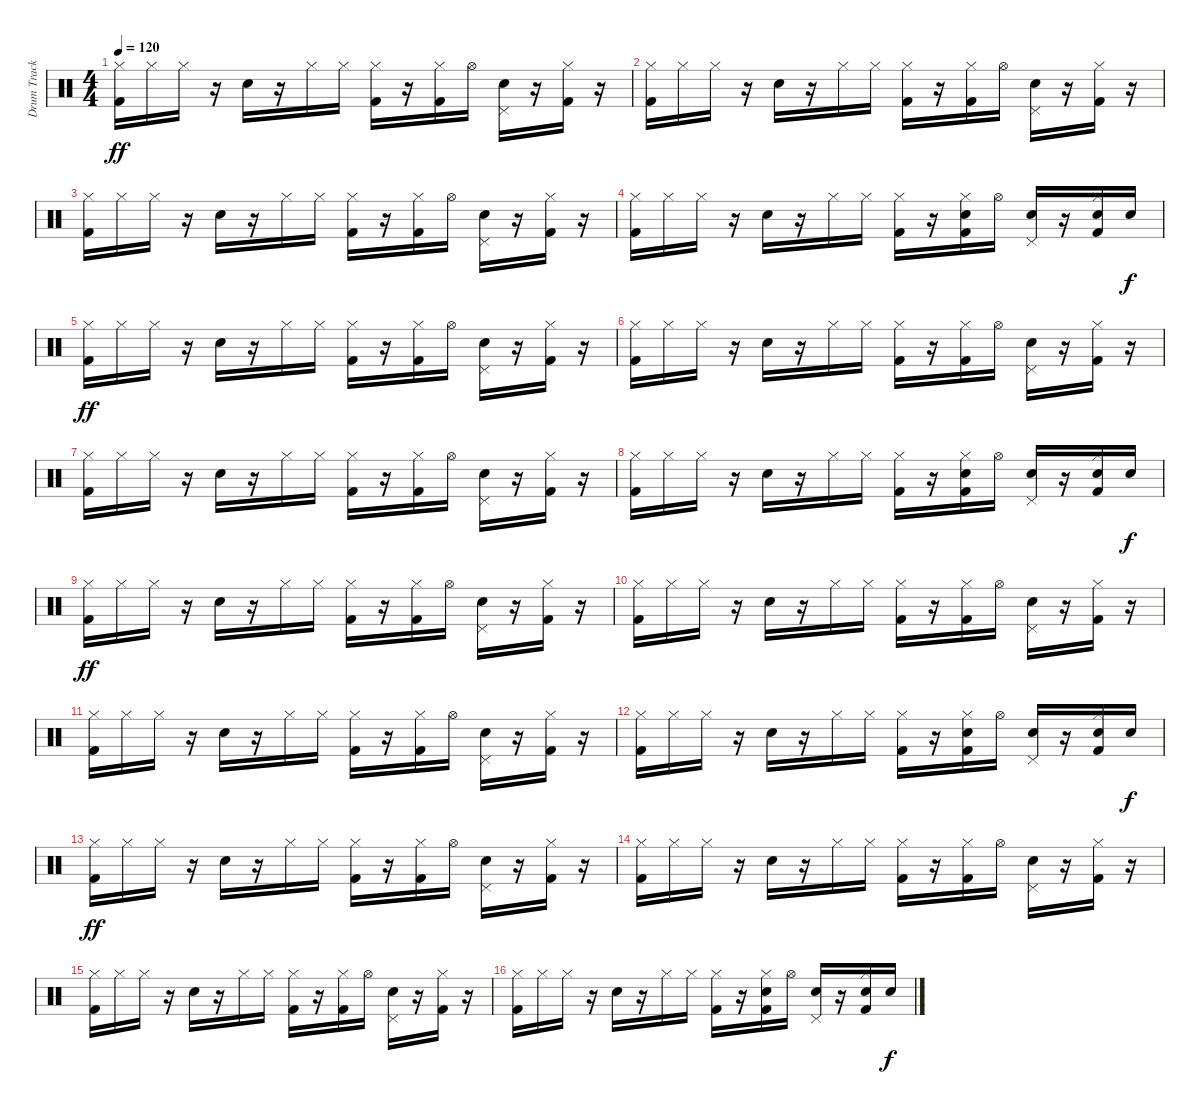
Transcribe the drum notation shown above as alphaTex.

\track ("Drum Track" "Drum Track") {instrument percussion}
\staff {score}
\articulation defaults
\ts (4 4)
\tempo 120
\clef neutral
\ks c
("Kick (hit) 2" "Hi-Hat (closed)").16{dy ff} "Hi-Hat (closed)".16 "Hi-Hat (closed)".16 r.16 "Snare (hit) 2".16 r.16 "Hi-Hat (closed)".16 "Hi-Hat (closed)".16 ("Kick (hit) 2" "Hi-Hat (closed)").16 r.16 ("Kick (hit) 2" "Hi-Hat (closed)").16 "Hi-Hat (open)".16 ("Snare (hit) 2" "Pedal Hi-Hat (hit)").16 r.16 ("Kick (hit) 2" "Hi-Hat (closed)").16 r.16 |
("Kick (hit) 2" "Hi-Hat (closed)").16 "Hi-Hat (closed)".16 "Hi-Hat (closed)".16 r.16 "Snare (hit) 2".16 r.16 "Hi-Hat (closed)".16 "Hi-Hat (closed)".16 ("Kick (hit) 2" "Hi-Hat (closed)").16 r.16 ("Kick (hit) 2" "Hi-Hat (closed)").16 "Hi-Hat (open)".16 ("Snare (hit) 2" "Pedal Hi-Hat (hit)").16 r.16 ("Kick (hit) 2" "Hi-Hat (closed)").16 r.16 |
("Kick (hit) 2" "Hi-Hat (closed)").16 "Hi-Hat (closed)".16 "Hi-Hat (closed)".16 r.16 "Snare (hit) 2".16 r.16 "Hi-Hat (closed)".16 "Hi-Hat (closed)".16 ("Kick (hit) 2" "Hi-Hat (closed)").16 r.16 ("Kick (hit) 2" "Hi-Hat (closed)").16 "Hi-Hat (open)".16 ("Snare (hit) 2" "Pedal Hi-Hat (hit)").16 r.16 ("Kick (hit) 2" "Hi-Hat (closed)").16 r.16 |
("Kick (hit) 2" "Hi-Hat (closed)").16 "Hi-Hat (closed)".16 "Hi-Hat (closed)".16 r.16 "Snare (hit) 2".16 r.16 "Hi-Hat (closed)".16 "Hi-Hat (closed)".16 ("Kick (hit) 2" "Hi-Hat (closed)").16 r.16 ("Kick (hit) 2" "Hi-Hat (closed)" "Snare (hit) 2").16 "Hi-Hat (open)".16 ("Snare (hit) 2" "Pedal Hi-Hat (hit)").16 r.16 ("Kick (hit) 2" "Hi-Hat (closed)" "Snare (hit) 2").16 "Snare (hit) 2".16{dy f} |
("Kick (hit) 2" "Hi-Hat (closed)").16{dy ff} "Hi-Hat (closed)".16 "Hi-Hat (closed)".16 r.16 "Snare (hit) 2".16 r.16 "Hi-Hat (closed)".16 "Hi-Hat (closed)".16 ("Kick (hit) 2" "Hi-Hat (closed)").16 r.16 ("Kick (hit) 2" "Hi-Hat (closed)").16 "Hi-Hat (open)".16 ("Snare (hit) 2" "Pedal Hi-Hat (hit)").16 r.16 ("Kick (hit) 2" "Hi-Hat (closed)").16 r.16 |
("Kick (hit) 2" "Hi-Hat (closed)").16 "Hi-Hat (closed)".16 "Hi-Hat (closed)".16 r.16 "Snare (hit) 2".16 r.16 "Hi-Hat (closed)".16 "Hi-Hat (closed)".16 ("Kick (hit) 2" "Hi-Hat (closed)").16 r.16 ("Kick (hit) 2" "Hi-Hat (closed)").16 "Hi-Hat (open)".16 ("Snare (hit) 2" "Pedal Hi-Hat (hit)").16 r.16 ("Kick (hit) 2" "Hi-Hat (closed)").16 r.16 |
("Kick (hit) 2" "Hi-Hat (closed)").16 "Hi-Hat (closed)".16 "Hi-Hat (closed)".16 r.16 "Snare (hit) 2".16 r.16 "Hi-Hat (closed)".16 "Hi-Hat (closed)".16 ("Kick (hit) 2" "Hi-Hat (closed)").16 r.16 ("Kick (hit) 2" "Hi-Hat (closed)").16 "Hi-Hat (open)".16 ("Snare (hit) 2" "Pedal Hi-Hat (hit)").16 r.16 ("Kick (hit) 2" "Hi-Hat (closed)").16 r.16 |
("Kick (hit) 2" "Hi-Hat (closed)").16 "Hi-Hat (closed)".16 "Hi-Hat (closed)".16 r.16 "Snare (hit) 2".16 r.16 "Hi-Hat (closed)".16 "Hi-Hat (closed)".16 ("Kick (hit) 2" "Hi-Hat (closed)").16 r.16 ("Kick (hit) 2" "Hi-Hat (closed)" "Snare (hit) 2").16 "Hi-Hat (open)".16 ("Snare (hit) 2" "Pedal Hi-Hat (hit)").16 r.16 ("Kick (hit) 2" "Hi-Hat (closed)" "Snare (hit) 2").16 "Snare (hit) 2".16{dy f} |
("Kick (hit) 2" "Hi-Hat (closed)").16{dy ff} "Hi-Hat (closed)".16 "Hi-Hat (closed)".16 r.16 "Snare (hit) 2".16 r.16 "Hi-Hat (closed)".16 "Hi-Hat (closed)".16 ("Kick (hit) 2" "Hi-Hat (closed)").16 r.16 ("Kick (hit) 2" "Hi-Hat (closed)").16 "Hi-Hat (open)".16 ("Snare (hit) 2" "Pedal Hi-Hat (hit)").16 r.16 ("Kick (hit) 2" "Hi-Hat (closed)").16 r.16 |
("Kick (hit) 2" "Hi-Hat (closed)").16 "Hi-Hat (closed)".16 "Hi-Hat (closed)".16 r.16 "Snare (hit) 2".16 r.16 "Hi-Hat (closed)".16 "Hi-Hat (closed)".16 ("Kick (hit) 2" "Hi-Hat (closed)").16 r.16 ("Kick (hit) 2" "Hi-Hat (closed)").16 "Hi-Hat (open)".16 ("Snare (hit) 2" "Pedal Hi-Hat (hit)").16 r.16 ("Kick (hit) 2" "Hi-Hat (closed)").16 r.16 |
("Kick (hit) 2" "Hi-Hat (closed)").16 "Hi-Hat (closed)".16 "Hi-Hat (closed)".16 r.16 "Snare (hit) 2".16 r.16 "Hi-Hat (closed)".16 "Hi-Hat (closed)".16 ("Kick (hit) 2" "Hi-Hat (closed)").16 r.16 ("Kick (hit) 2" "Hi-Hat (closed)").16 "Hi-Hat (open)".16 ("Snare (hit) 2" "Pedal Hi-Hat (hit)").16 r.16 ("Kick (hit) 2" "Hi-Hat (closed)").16 r.16 |
("Kick (hit) 2" "Hi-Hat (closed)").16 "Hi-Hat (closed)".16 "Hi-Hat (closed)".16 r.16 "Snare (hit) 2".16 r.16 "Hi-Hat (closed)".16 "Hi-Hat (closed)".16 ("Kick (hit) 2" "Hi-Hat (closed)").16 r.16 ("Kick (hit) 2" "Hi-Hat (closed)" "Snare (hit) 2").16 "Hi-Hat (open)".16 ("Snare (hit) 2" "Pedal Hi-Hat (hit)").16 r.16 ("Kick (hit) 2" "Hi-Hat (closed)" "Snare (hit) 2").16 "Snare (hit) 2".16{dy f} |
("Kick (hit) 2" "Hi-Hat (closed)").16{dy ff} "Hi-Hat (closed)".16 "Hi-Hat (closed)".16 r.16 "Snare (hit) 2".16 r.16 "Hi-Hat (closed)".16 "Hi-Hat (closed)".16 ("Kick (hit) 2" "Hi-Hat (closed)").16 r.16 ("Kick (hit) 2" "Hi-Hat (closed)").16 "Hi-Hat (open)".16 ("Snare (hit) 2" "Pedal Hi-Hat (hit)").16 r.16 ("Kick (hit) 2" "Hi-Hat (closed)").16 r.16 |
("Kick (hit) 2" "Hi-Hat (closed)").16 "Hi-Hat (closed)".16 "Hi-Hat (closed)".16 r.16 "Snare (hit) 2".16 r.16 "Hi-Hat (closed)".16 "Hi-Hat (closed)".16 ("Kick (hit) 2" "Hi-Hat (closed)").16 r.16 ("Kick (hit) 2" "Hi-Hat (closed)").16 "Hi-Hat (open)".16 ("Snare (hit) 2" "Pedal Hi-Hat (hit)").16 r.16 ("Kick (hit) 2" "Hi-Hat (closed)").16 r.16 |
("Kick (hit) 2" "Hi-Hat (closed)").16 "Hi-Hat (closed)".16 "Hi-Hat (closed)".16 r.16 "Snare (hit) 2".16 r.16 "Hi-Hat (closed)".16 "Hi-Hat (closed)".16 ("Kick (hit) 2" "Hi-Hat (closed)").16 r.16 ("Kick (hit) 2" "Hi-Hat (closed)").16 "Hi-Hat (open)".16 ("Snare (hit) 2" "Pedal Hi-Hat (hit)").16 r.16 ("Kick (hit) 2" "Hi-Hat (closed)").16 r.16 |
("Kick (hit) 2" "Hi-Hat (closed)").16 "Hi-Hat (closed)".16 "Hi-Hat (closed)".16 r.16 "Snare (hit) 2".16 r.16 "Hi-Hat (closed)".16 "Hi-Hat (closed)".16 ("Kick (hit) 2" "Hi-Hat (closed)").16 r.16 ("Kick (hit) 2" "Hi-Hat (closed)" "Snare (hit) 2").16 "Hi-Hat (open)".16 ("Snare (hit) 2" "Pedal Hi-Hat (hit)").16 r.16 ("Kick (hit) 2" "Hi-Hat (closed)" "Snare (hit) 2").16 "Snare (hit) 2".16{dy f}
